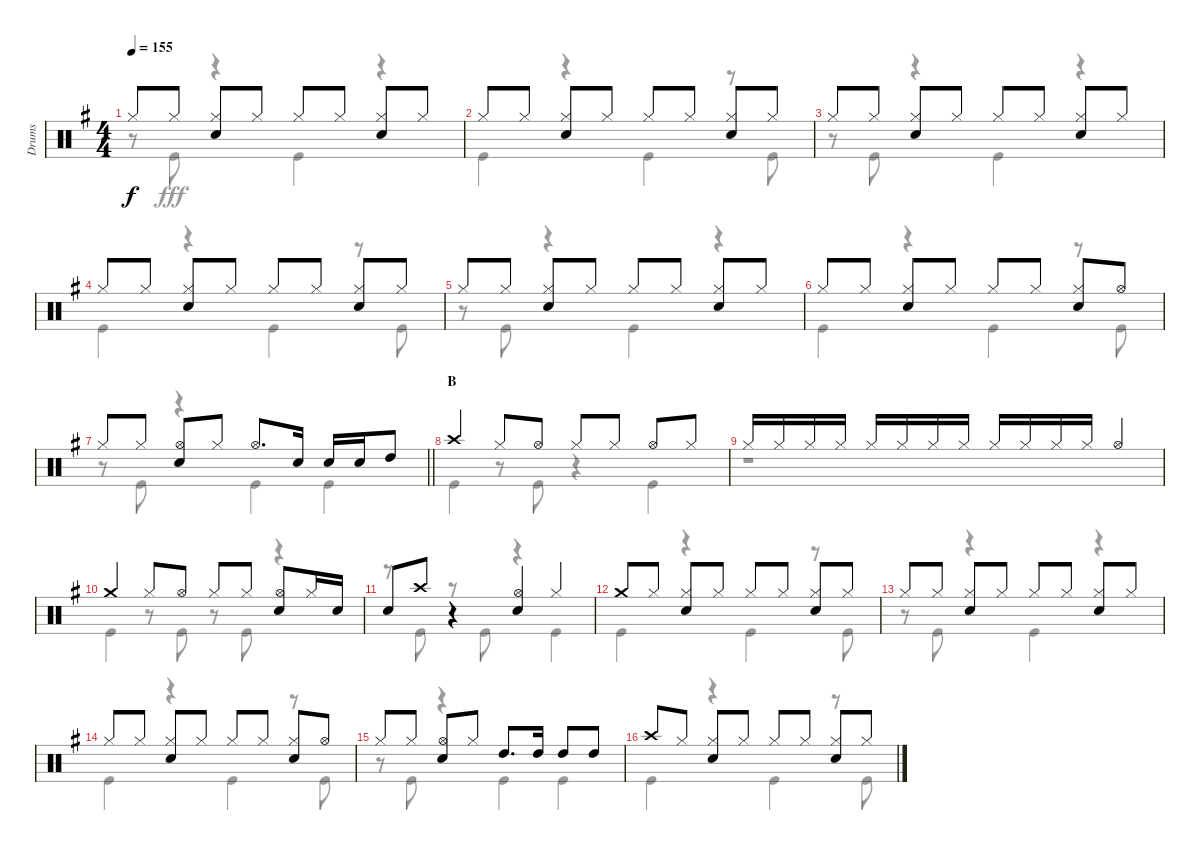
\track ("Drums" "Drums") {instrument percussion}
\staff {score}
\articulation defaults
\voice
\ts (4 4)
\tempo 155
\clef neutral
\ks g "Hi-Hat (closed)".8{dy f} "Hi-Hat (closed)".8
("Hi-Hat (closed)" "Snare (hit) 2").8 "Hi-Hat (closed)".8 "Hi-Hat (closed)".8 "Hi-Hat (closed)".8 ("Hi-Hat (closed)" "Snare (hit) 2").8 "Hi-Hat (closed)".8 |
"Hi-Hat (closed)".8 "Hi-Hat (closed)".8 ("Hi-Hat (closed)" "Snare (hit) 2").8 "Hi-Hat (closed)".8 "Hi-Hat (closed)".8 "Hi-Hat (closed)".8 ("Hi-Hat (closed)" "Snare (hit) 2").8 "Hi-Hat (closed)".8 |
"Hi-Hat (closed)".8 "Hi-Hat (closed)".8 ("Hi-Hat (closed)" "Snare (hit) 2").8 "Hi-Hat (closed)".8 "Hi-Hat (closed)".8 "Hi-Hat (closed)".8 ("Hi-Hat (closed)" "Snare (hit) 2").8 "Hi-Hat (closed)".8 |
"Hi-Hat (closed)".8 "Hi-Hat (closed)".8 ("Hi-Hat (closed)" "Snare (hit) 2").8 "Hi-Hat (closed)".8 "Hi-Hat (closed)".8 "Hi-Hat (closed)".8 ("Hi-Hat (closed)" "Snare (hit) 2").8 "Hi-Hat (closed)".8 |
"Hi-Hat (closed)".8 "Hi-Hat (closed)".8 ("Hi-Hat (closed)" "Snare (hit) 2").8 "Hi-Hat (closed)".8 "Hi-Hat (closed)".8 "Hi-Hat (closed)".8 ("Hi-Hat (closed)" "Snare (hit) 2").8 "Hi-Hat (closed)".8 |
"Hi-Hat (closed)".8 "Hi-Hat (closed)".8 ("Hi-Hat (closed)" "Snare (hit) 2").8 "Hi-Hat (closed)".8 "Hi-Hat (closed)".8 "Hi-Hat (closed)".8 ("Hi-Hat (closed)" "Snare (hit) 2").8 "Hi-Hat (open)".8 |
\barLineRight lightlight "Hi-Hat (closed)".8 "Hi-Hat (closed)".8
("Hi-Hat (open)" "Snare (hit) 2").8 "Hi-Hat (closed)".8 "Hi-Hat (open)".8{d} "Snare (hit) 2".16 "Snare (hit) 2".16 "Snare (hit) 2".16 "High Tom (hit)".8 |
\section ("" "B")
"Crash high (hit)".4 "Hi-Hat (closed)".8 "Hi-Hat (open)".8 "Hi-Hat (closed)".8 "Hi-Hat (closed)".8 "Hi-Hat (open)".8 "Hi-Hat (closed)".8 |
"Hi-Hat (closed)".16 "Hi-Hat (closed)".16 "Hi-Hat (closed)".16 "Hi-Hat (closed)".16 "Hi-Hat (closed)".16 "Hi-Hat (closed)".16 "Hi-Hat (closed)".16 "Hi-Hat (closed)".16 "Hi-Hat (closed)".16 "Hi-Hat (closed)".16 "Hi-Hat (closed)".16 "Hi-Hat (closed)".16 "Hi-Hat (open)".4 |
"Crash medium (hit)".4 "Hi-Hat (closed)".8 "Hi-Hat (open)".8 "Hi-Hat (closed)".8 "Hi-Hat (closed)".8 ("Hi-Hat (open)" "Snare (hit) 2").8 "Hi-Hat (closed)".16 "Snare (hit) 2".16 |
"Snare (hit) 2".8 "Crash high (hit)".8 r.4 ("Hi-Hat (open)" "Snare (hit) 2").4 "Hi-Hat (closed)".4 |
"Crash medium (hit)".8 "Hi-Hat (closed)".8 ("Hi-Hat (closed)" "Snare (hit) 2").8 "Hi-Hat (closed)".8 "Hi-Hat (closed)".8 "Hi-Hat (closed)".8 ("Hi-Hat (closed)" "Snare (hit) 2").8 "Hi-Hat (closed)".8 |
"Hi-Hat (closed)".8 "Hi-Hat (closed)".8 ("Hi-Hat (closed)" "Snare (hit) 2").8 "Hi-Hat (closed)".8 "Hi-Hat (closed)".8 "Hi-Hat (closed)".8 ("Hi-Hat (closed)" "Snare (hit) 2").8 "Hi-Hat (closed)".8 |
"Hi-Hat (closed)".8 "Hi-Hat (closed)".8 ("Hi-Hat (closed)" "Snare (hit) 2").8 "Hi-Hat (closed)".8 "Hi-Hat (closed)".8 "Hi-Hat (closed)".8 ("Hi-Hat (closed)" "Snare (hit) 2").8 "Hi-Hat (open)".8 |
"Hi-Hat (closed)".8 "Hi-Hat (closed)".8 ("Hi-Hat (open)" "Snare (hit) 2").8 "Hi-Hat (closed)".8 "High Tom (hit)".8{d} "High Tom (hit)".16 "High Tom (hit)".8 "High Tom (hit)".8 |
"Crash high (hit)".8 "Hi-Hat (closed)".8 ("Hi-Hat (closed)" "Snare (hit) 2").8 "Hi-Hat (closed)".8 "Hi-Hat (closed)".8 "Hi-Hat (closed)".8 ("Hi-Hat (closed)" "Snare (hit) 2").8 "Hi-Hat (closed)".8
\voice
\clef neutral
\ottava regular
\simile none
\ks g
r.8{dy fff} "Kick (hit)".8 r.4 "Kick (hit)".4 r.4 |
"Kick (hit)".4 r.4 "Kick (hit)".4 r.8 "Kick (hit)".8 |
r.8 "Kick (hit)".8 r.4 "Kick (hit)".4 r.4 |
"Kick (hit)".4 r.4 "Kick (hit)".4 r.8 "Kick (hit)".8 |
r.8 "Kick (hit)".8 r.4 "Kick (hit)".4 r.4 |
"Kick (hit)".4 r.4 "Kick (hit)".4 r.8 "Kick (hit)".8 |
\barLineRight lightlight
r.8 "Kick (hit)".8 r.4 "Kick (hit)".4 "Kick (hit)".4 |
"Kick (hit)".4 r.8 "Kick (hit)".8 r.4 "Kick (hit)".4 |
r.1 |
"Kick (hit)".4 r.8 "Kick (hit)".8 r.8 "Kick (hit)".8 r.4 |
r.8 "Kick (hit)".8 r.8 "Kick (hit)".8 r.4 "Kick (hit)".4 |
"Kick (hit)".4 r.4 "Kick (hit)".4 r.8 "Kick (hit)".8 |
r.8 "Kick (hit)".8 r.4 "Kick (hit)".4 r.4 |
"Kick (hit)".4 r.4 "Kick (hit)".4 r.8 "Kick (hit)".8 |
r.8 "Kick (hit)".8 r.4 "Kick (hit)".4 "Kick (hit)".4 |
"Kick (hit)".4 r.4 "Kick (hit)".4 r.8 "Kick (hit)".8
